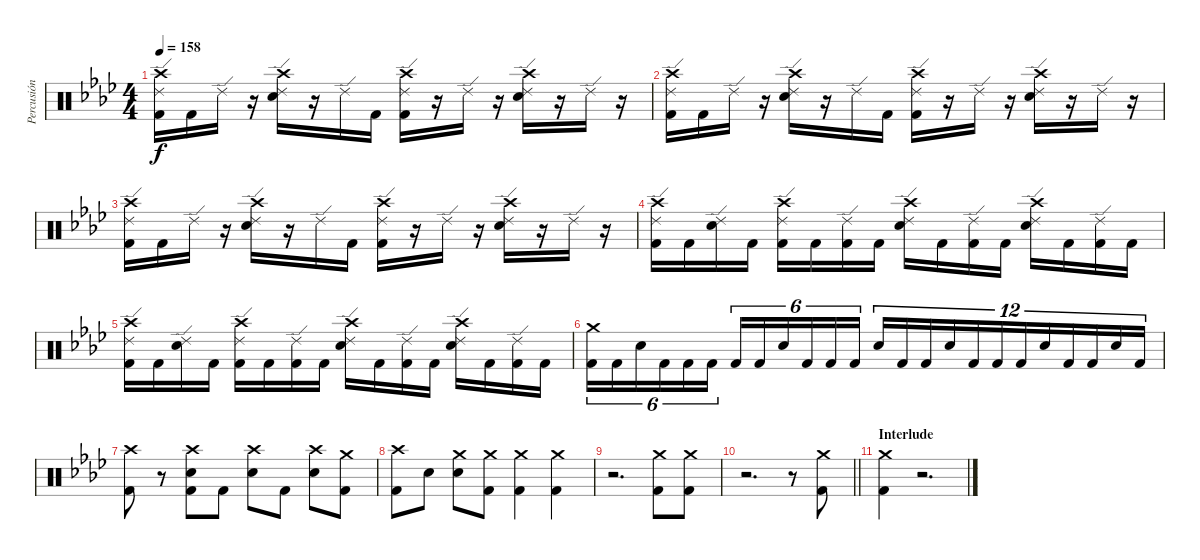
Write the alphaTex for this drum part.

\track ("Percusión" "Percusión") {instrument percussion}
\staff {score}
\articulation defaults
\ts (4 4)
\tempo 158
\clef neutral
\ks ab
("Crash high (hit)" "Ride (edge) 2" "Kick (hit) 2").16{dy f} "Kick (hit) 2".16 "Ride (edge) 2".16 r.16 ("Crash high (hit)" "Ride (edge) 2" "Electric Snare (hit)").16 r.16 "Ride (edge) 2".16 "Kick (hit) 2".16 ("Crash high (hit)" "Ride (edge) 2" "Kick (hit) 2").16 r.16 "Ride (edge) 2".16 r.16 ("Crash high (hit)" "Ride (edge) 2" "Electric Snare (hit)").16 r.16 "Ride (edge) 2".16 r.16 |
("Crash high (hit)" "Ride (edge) 2" "Kick (hit) 2").16 "Kick (hit) 2".16 "Ride (edge) 2".16 r.16 ("Crash high (hit)" "Ride (edge) 2" "Electric Snare (hit)").16 r.16 "Ride (edge) 2".16 "Kick (hit) 2".16 ("Crash high (hit)" "Ride (edge) 2" "Kick (hit) 2").16 r.16 "Ride (edge) 2".16 r.16 ("Crash high (hit)" "Ride (edge) 2" "Electric Snare (hit)").16 r.16 "Ride (edge) 2".16 r.16 |
("Crash high (hit)" "Ride (edge) 2" "Kick (hit) 2").16 "Kick (hit) 2".16 "Ride (edge) 2".16 r.16 ("Crash high (hit)" "Ride (edge) 2" "Electric Snare (hit)").16 r.16 "Ride (edge) 2".16 "Kick (hit) 2".16 ("Crash high (hit)" "Ride (edge) 2" "Kick (hit) 2").16 r.16 "Ride (edge) 2".16 r.16 ("Crash high (hit)" "Ride (edge) 2" "Electric Snare (hit)").16 r.16 "Ride (edge) 2".16 r.16 |
("Crash high (hit)" "Ride (edge) 2" "Kick (hit) 2").16 "Kick (hit) 2".16 ("Ride (edge) 2" "Snare (hit) 2").16 "Kick (hit) 2".16 ("Crash high (hit)" "Ride (edge) 2" "Kick (hit) 2").16 "Kick (hit) 2".16 ("Ride (edge) 2" "Kick (hit) 2").16 "Kick (hit) 2".16 ("Crash high (hit)" "Ride (edge) 2" "Snare (hit) 2").16 "Kick (hit) 2".16 ("Ride (edge) 2" "Kick (hit) 2").16 "Kick (hit) 2".16 ("Crash high (hit)" "Ride (edge) 2" "Snare (hit) 2").16 "Kick (hit) 2".16 ("Ride (edge) 2" "Kick (hit) 2").16 "Kick (hit) 2".16 |
("Crash high (hit)" "Ride (edge) 2" "Kick (hit) 2").16 "Kick (hit) 2".16 ("Ride (edge) 2" "Snare (hit) 2").16 "Kick (hit) 2".16 ("Crash high (hit)" "Ride (edge) 2" "Kick (hit) 2").16 "Kick (hit) 2".16 ("Ride (edge) 2" "Kick (hit) 2").16 "Kick (hit) 2".16 ("Crash high (hit)" "Ride (edge) 2" "Snare (hit) 2").16 "Kick (hit) 2".16 ("Ride (edge) 2" "Kick (hit) 2").16 "Kick (hit) 2".16 ("Crash high (hit)" "Ride (edge) 2" "Snare (hit) 2").16 "Kick (hit) 2".16 ("Ride (edge) 2" "Kick (hit) 2").16 "Kick (hit) 2".16 |
("Crash medium (hit)" "Kick (hit) 2").16{tu (6 4)} "Kick (hit) 2".16{tu (6 4)} "Snare (hit) 2".16{tu (6 4)} "Kick (hit) 2".16{tu (6 4)} "Kick (hit) 2".16{tu (6 4)} "Kick (hit) 2".16{tu (6 4)} "Kick (hit) 2".16{tu (6 4)} "Kick (hit) 2".16{tu (6 4)} "Snare (hit) 2".16{tu (6 4)} "Kick (hit) 2".16{tu (6 4)} "Kick (hit) 2".16{tu (6 4)} "Kick (hit) 2".16{tu (6 4)} "Snare (hit) 2".16{tu (12 8)} "Kick (hit) 2".16{tu (12 8)} "Kick (hit) 2".16{tu (12 8)} "Snare (hit) 2".16{tu (12 8)} "Kick (hit) 2".16{tu (12 8)} "Kick (hit) 2".16{tu (12 8)} "Kick (hit) 2".16{tu (12 8)} "Snare (hit) 2".16{tu (12 8)} "Kick (hit) 2".16{tu (12 8)} "Kick (hit) 2".16{tu (12 8)} "Snare (hit) 2".16{tu (12 8)} "Kick (hit) 2".16{tu (12 8)} |
("Crash high (hit)" "Kick (hit) 2").8 r.8 ("Crash high (hit)" "Electric Snare (hit)" "Kick (hit) 2").8 "Kick (hit) 2".8 ("Crash high (hit)" "Electric Snare (hit)").8 "Kick (hit) 2".8 ("Crash high (hit)" "Electric Snare (hit)").8 ("Crash medium (hit)" "Kick (hit) 2").8 |
("Crash high (hit)" "Kick (hit) 2").8 "Electric Snare (hit)".8 ("Crash medium (hit)" "Electric Snare (hit)").8 ("Crash medium (hit)" "Kick (hit) 2").8 ("Crash medium (hit)" "Kick (hit) 2").4 ("Crash medium (hit)" "Kick (hit) 2").4 |
r.2{d} ("Crash medium (hit)" "Kick (hit) 2").8 ("Crash medium (hit)" "Kick (hit) 2").8 |
\barLineRight lightlight
r.2{d} r.8 ("Crash medium (hit)" "Kick (hit) 2").8 |
\section ("" "Interlude")
("Crash medium (hit)" "Kick (hit) 2").4 r.2{d}
